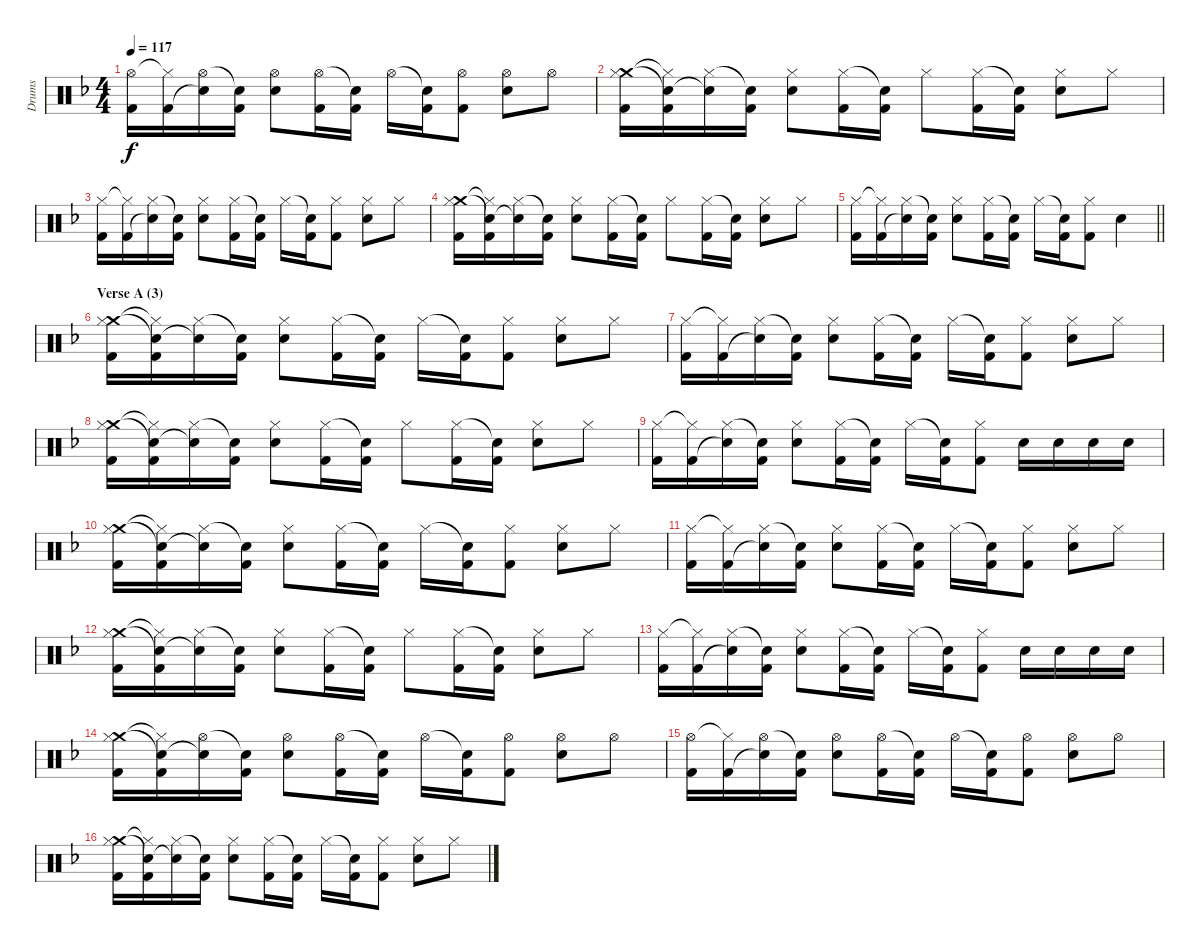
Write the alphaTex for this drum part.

\track ("Drums" "Drums") {instrument percussion}
\staff {score}
\articulation defaults
\ts (4 4)
\tempo 117
\clef neutral
\ks dminor
("Hi-Hat (open)" "Kick (hit) 2").16{dy f} ("Hi-Hat (closed)"{t} "Kick (hit) 2").16 ("Hi-Hat (open)" "Snare (hit)"{t}).16 ("Snare (hit)"{t} "Kick (hit) 2").16 ("Hi-Hat (open)" "Electric Snare (hit)").8 ("Hi-Hat (open)" "Kick (hit) 2").16 ("Snare (hit)"{t} "Kick (hit) 2").16 "Hi-Hat (open)".16 ("Snare (hit)"{t} "Kick (hit) 2").16 ("Hi-Hat (open)" "Kick (hit) 2").8 ("Hi-Hat (open)" "Electric Snare (hit)").8 "Hi-Hat (open)".8 |
("Crash medium (hit)" "Hi-Hat (closed)" "Kick (hit) 2").16 ("Hi-Hat (closed)"{t} "Snare (hit)"{t} "Kick (hit) 2").16 ("Hi-Hat (closed)" "Snare (hit)"{t}).16 ("Snare (hit)"{t} "Kick (hit) 2").16 ("Hi-Hat (closed)" "Electric Snare (hit)").8 ("Hi-Hat (closed)" "Kick (hit) 2").16 ("Snare (hit)"{t} "Kick (hit) 2").16 "Hi-Hat (closed)".8 ("Hi-Hat (closed)" "Kick (hit) 2").16 ("Snare (hit)"{t} "Kick (hit) 2").16 ("Hi-Hat (closed)" "Electric Snare (hit)").8 "Hi-Hat (closed)".8 |
("Hi-Hat (closed)" "Kick (hit) 2").16 ("Hi-Hat (closed)"{t} "Kick (hit) 2").16 ("Hi-Hat (closed)" "Snare (hit)"{t}).16 ("Snare (hit)"{t} "Kick (hit) 2").16 ("Hi-Hat (closed)" "Electric Snare (hit)").8 ("Hi-Hat (closed)" "Kick (hit) 2").16 ("Snare (hit)"{t} "Kick (hit) 2").16 "Hi-Hat (closed)".16 ("Snare (hit)"{t} "Kick (hit) 2").16 ("Hi-Hat (closed)" "Kick (hit) 2").8 ("Hi-Hat (closed)" "Electric Snare (hit)").8 "Hi-Hat (closed)".8 |
("Crash medium (hit)" "Hi-Hat (closed)" "Kick (hit) 2").16 ("Hi-Hat (closed)"{t} "Snare (hit)"{t} "Kick (hit) 2").16 ("Hi-Hat (closed)" "Snare (hit)"{t}).16 ("Snare (hit)"{t} "Kick (hit) 2").16 ("Hi-Hat (closed)" "Electric Snare (hit)").8 ("Hi-Hat (closed)" "Kick (hit) 2").16 ("Snare (hit)"{t} "Kick (hit) 2").16 "Hi-Hat (closed)".8 ("Hi-Hat (closed)" "Kick (hit) 2").16 ("Snare (hit)"{t} "Kick (hit) 2").16 ("Hi-Hat (closed)" "Electric Snare (hit)").8 "Hi-Hat (closed)".8 |
\barLineRight lightlight
("Hi-Hat (closed)" "Kick (hit) 2").16 ("Hi-Hat (closed)"{t} "Kick (hit) 2").16 ("Hi-Hat (closed)" "Snare (hit)"{t}).16 ("Snare (hit)"{t} "Kick (hit) 2").16 ("Hi-Hat (closed)" "Electric Snare (hit)").8 ("Hi-Hat (closed)" "Kick (hit) 2").16 ("Snare (hit)"{t} "Kick (hit) 2").16 "Hi-Hat (closed)".16 ("Snare (hit)"{t} "Kick (hit) 2").16 ("Hi-Hat (closed)" "Kick (hit) 2").8 "Electric Snare (hit)".4 |
\section ("" "Verse A (3)")
("Crash medium (hit)" "Hi-Hat (closed)" "Kick (hit) 2").16 ("Hi-Hat (closed)"{t} "Snare (hit)"{t} "Kick (hit) 2").16 ("Hi-Hat (closed)" "Snare (hit)"{t}).16 ("Snare (hit)"{t} "Kick (hit) 2").16 ("Hi-Hat (closed)" "Electric Snare (hit)").8 ("Hi-Hat (closed)" "Kick (hit) 2").16 ("Snare (hit)"{t} "Kick (hit) 2").16 "Hi-Hat (closed)".16 ("Snare (hit)"{t} "Kick (hit) 2").16 ("Hi-Hat (closed)" "Kick (hit) 2").8 ("Hi-Hat (closed)" "Electric Snare (hit)").8 "Hi-Hat (closed)".8 |
("Hi-Hat (closed)" "Kick (hit) 2").16 ("Hi-Hat (closed)"{t} "Kick (hit) 2").16 ("Hi-Hat (closed)" "Snare (hit)"{t}).16 ("Snare (hit)"{t} "Kick (hit) 2").16 ("Hi-Hat (closed)" "Electric Snare (hit)").8 ("Hi-Hat (closed)" "Kick (hit) 2").16 ("Snare (hit)"{t} "Kick (hit) 2").16 "Hi-Hat (closed)".16 ("Snare (hit)"{t} "Kick (hit) 2").16 ("Hi-Hat (closed)" "Kick (hit) 2").8 ("Hi-Hat (closed)" "Electric Snare (hit)").8 "Hi-Hat (closed)".8 |
("Crash medium (hit)" "Hi-Hat (closed)" "Kick (hit) 2").16 ("Hi-Hat (closed)"{t} "Snare (hit)"{t} "Kick (hit) 2").16 ("Hi-Hat (closed)" "Snare (hit)"{t}).16 ("Snare (hit)"{t} "Kick (hit) 2").16 ("Hi-Hat (closed)" "Electric Snare (hit)").8 ("Hi-Hat (closed)" "Kick (hit) 2").16 ("Snare (hit)"{t} "Kick (hit) 2").16 "Hi-Hat (closed)".8 ("Hi-Hat (closed)" "Kick (hit) 2").16 ("Snare (hit)"{t} "Kick (hit) 2").16 ("Hi-Hat (closed)" "Electric Snare (hit)").8 "Hi-Hat (closed)".8 |
("Hi-Hat (closed)" "Kick (hit) 2").16 ("Hi-Hat (closed)"{t} "Kick (hit) 2").16 ("Hi-Hat (closed)" "Snare (hit)"{t}).16 ("Snare (hit)"{t} "Kick (hit) 2").16 ("Hi-Hat (closed)" "Electric Snare (hit)").8 ("Hi-Hat (closed)" "Kick (hit) 2").16 ("Snare (hit)"{t} "Kick (hit) 2").16 "Hi-Hat (closed)".16 ("Snare (hit)"{t} "Kick (hit) 2").16 ("Hi-Hat (closed)" "Kick (hit) 2").8 "Electric Snare (hit)".16 "Electric Snare (hit)".16 "Electric Snare (hit)".16 "Electric Snare (hit)".16 |
("Crash medium (hit)" "Hi-Hat (closed)" "Kick (hit) 2").16 ("Hi-Hat (closed)"{t} "Snare (hit)"{t} "Kick (hit) 2").16 ("Hi-Hat (closed)" "Snare (hit)"{t}).16 ("Snare (hit)"{t} "Kick (hit) 2").16 ("Hi-Hat (closed)" "Electric Snare (hit)").8 ("Hi-Hat (closed)" "Kick (hit) 2").16 ("Snare (hit)"{t} "Kick (hit) 2").16 "Hi-Hat (closed)".16 ("Snare (hit)"{t} "Kick (hit) 2").16 ("Hi-Hat (closed)" "Kick (hit) 2").8 ("Hi-Hat (closed)" "Electric Snare (hit)").8 "Hi-Hat (closed)".8 |
("Hi-Hat (closed)" "Kick (hit) 2").16 ("Hi-Hat (closed)"{t} "Kick (hit) 2").16 ("Hi-Hat (closed)" "Snare (hit)"{t}).16 ("Snare (hit)"{t} "Kick (hit) 2").16 ("Hi-Hat (closed)" "Electric Snare (hit)").8 ("Hi-Hat (closed)" "Kick (hit) 2").16 ("Snare (hit)"{t} "Kick (hit) 2").16 "Hi-Hat (closed)".16 ("Snare (hit)"{t} "Kick (hit) 2").16 ("Hi-Hat (closed)" "Kick (hit) 2").8 ("Hi-Hat (closed)" "Electric Snare (hit)").8 "Hi-Hat (closed)".8 |
("Crash medium (hit)" "Hi-Hat (closed)" "Kick (hit) 2").16 ("Hi-Hat (closed)"{t} "Snare (hit)"{t} "Kick (hit) 2").16 ("Hi-Hat (closed)" "Snare (hit)"{t}).16 ("Snare (hit)"{t} "Kick (hit) 2").16 ("Hi-Hat (closed)" "Electric Snare (hit)").8 ("Hi-Hat (closed)" "Kick (hit) 2").16 ("Snare (hit)"{t} "Kick (hit) 2").16 "Hi-Hat (closed)".8 ("Hi-Hat (closed)" "Kick (hit) 2").16 ("Snare (hit)"{t} "Kick (hit) 2").16 ("Hi-Hat (closed)" "Electric Snare (hit)").8 "Hi-Hat (closed)".8 |
("Hi-Hat (closed)" "Kick (hit) 2").16 ("Hi-Hat (closed)"{t} "Kick (hit) 2").16 ("Hi-Hat (closed)" "Snare (hit)"{t}).16 ("Snare (hit)"{t} "Kick (hit) 2").16 ("Hi-Hat (closed)" "Electric Snare (hit)").8 ("Hi-Hat (closed)" "Kick (hit) 2").16 ("Snare (hit)"{t} "Kick (hit) 2").16 "Hi-Hat (closed)".16 ("Snare (hit)"{t} "Kick (hit) 2").16 ("Hi-Hat (closed)" "Kick (hit) 2").8 "Electric Snare (hit)".16 "Electric Snare (hit)".16 "Electric Snare (hit)".16 "Electric Snare (hit)".16 |
("Crash medium (hit)" "Hi-Hat (closed)" "Kick (hit) 2").16 ("Hi-Hat (closed)"{t} "Snare (hit)"{t} "Kick (hit) 2").16 ("Hi-Hat (open)" "Snare (hit)"{t}).16 ("Snare (hit)"{t} "Kick (hit) 2").16 ("Hi-Hat (open)" "Electric Snare (hit)").8 ("Hi-Hat (open)" "Kick (hit) 2").16 ("Snare (hit)"{t} "Kick (hit) 2").16 "Hi-Hat (open)".16 ("Snare (hit)"{t} "Kick (hit) 2").16 ("Hi-Hat (open)" "Kick (hit) 2").8 ("Hi-Hat (open)" "Electric Snare (hit)").8 "Hi-Hat (open)".8 |
("Hi-Hat (open)" "Kick (hit) 2").16 ("Hi-Hat (closed)"{t} "Kick (hit) 2").16 ("Hi-Hat (open)" "Snare (hit)"{t}).16 ("Snare (hit)"{t} "Kick (hit) 2").16 ("Hi-Hat (open)" "Electric Snare (hit)").8 ("Hi-Hat (open)" "Kick (hit) 2").16 ("Snare (hit)"{t} "Kick (hit) 2").16 "Hi-Hat (open)".16 ("Snare (hit)"{t} "Kick (hit) 2").16 ("Hi-Hat (open)" "Kick (hit) 2").8 ("Hi-Hat (open)" "Electric Snare (hit)").8 "Hi-Hat (open)".8 |
("Crash medium (hit)" "Hi-Hat (closed)" "Kick (hit) 2").16 ("Hi-Hat (closed)"{t} "Snare (hit)"{t} "Kick (hit) 2").16 ("Hi-Hat (closed)" "Snare (hit)"{t}).16 ("Snare (hit)"{t} "Kick (hit) 2").16 ("Hi-Hat (closed)" "Electric Snare (hit)").8 ("Hi-Hat (closed)" "Kick (hit) 2").16 ("Snare (hit)"{t} "Kick (hit) 2").16 "Hi-Hat (closed)".16 ("Snare (hit)"{t} "Kick (hit) 2").16 ("Hi-Hat (closed)" "Kick (hit) 2").8 ("Hi-Hat (closed)" "Electric Snare (hit)").8 "Hi-Hat (closed)".8
